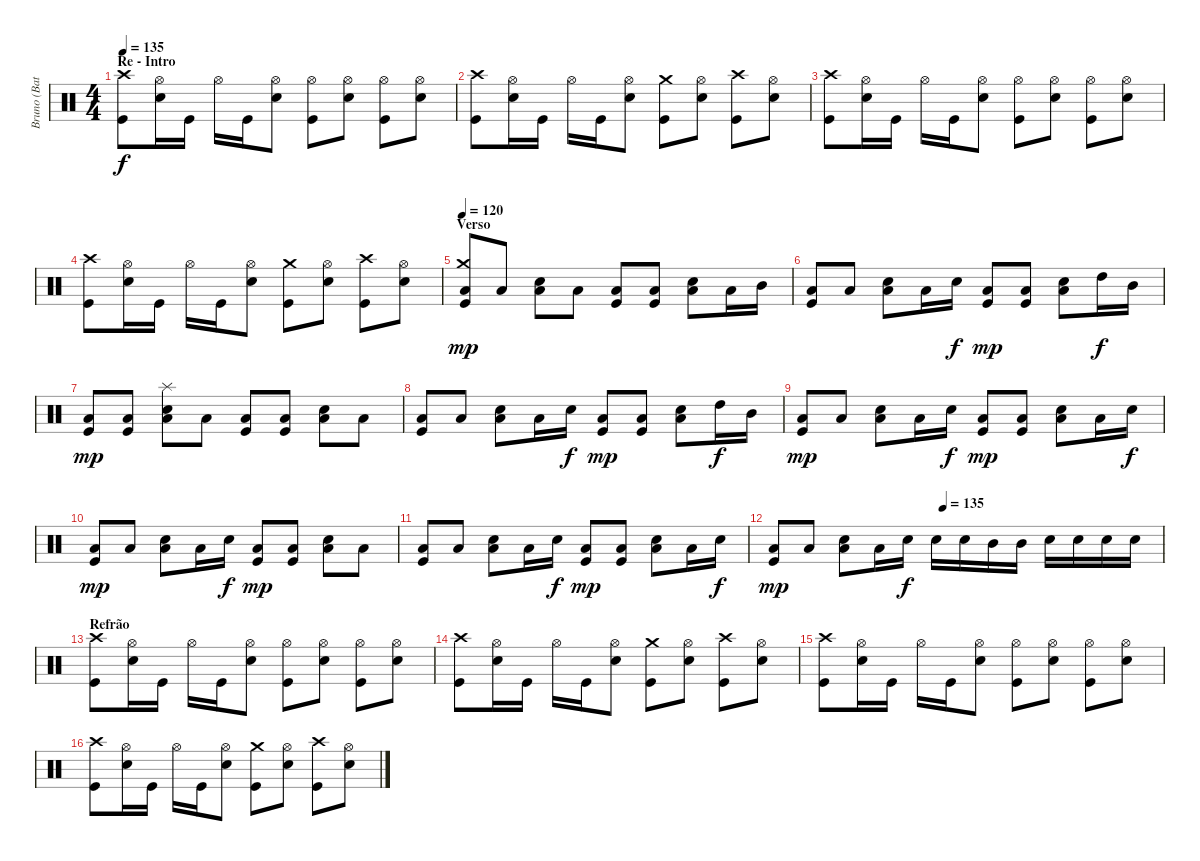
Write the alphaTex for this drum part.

\track ("Bruno (Bateria)" "Bruno (Bat") {instrument percussion}
\staff {score}
\articulation defaults
\ts (4 4)
\section ("" "Re - Intro")
\tempo 135
\clef neutral
\ks c
("Crash high (hit)" "Kick (hit)").8{dy f} ("Hi-Hat (open)" "Electric Snare (hit)").16 "Kick (hit)".16 "Hi-Hat (open)".16 "Kick (hit)".16 ("Hi-Hat (open)" "Electric Snare (hit)").8 ("Hi-Hat (open)" "Kick (hit)").8 ("Hi-Hat (open)" "Electric Snare (hit)").8 ("Hi-Hat (open)" "Kick (hit)").8 ("Hi-Hat (open)" "Electric Snare (hit)").8 |
("Crash high (hit)" "Kick (hit)").8 ("Hi-Hat (open)" "Electric Snare (hit)").16 "Kick (hit)".16 "Hi-Hat (open)".16 "Kick (hit)".16 ("Hi-Hat (open)" "Electric Snare (hit)").8 ("Crash medium (hit)" "Kick (hit)").8 ("Hi-Hat (open)" "Electric Snare (hit)").8 ("Crash high (hit)" "Kick (hit)").8 ("Hi-Hat (open)" "Electric Snare (hit)").8 |
("Crash high (hit)" "Kick (hit)").8 ("Hi-Hat (open)" "Electric Snare (hit)").16 "Kick (hit)".16 "Hi-Hat (open)".16 "Kick (hit)".16 ("Hi-Hat (open)" "Electric Snare (hit)").8 ("Hi-Hat (open)" "Kick (hit)").8 ("Hi-Hat (open)" "Electric Snare (hit)").8 ("Hi-Hat (open)" "Kick (hit)").8 ("Hi-Hat (open)" "Electric Snare (hit)").8 |
("Crash high (hit)" "Kick (hit)").8 ("Hi-Hat (open)" "Electric Snare (hit)").16 "Kick (hit)".16 "Hi-Hat (open)".16 "Kick (hit)".16 ("Hi-Hat (open)" "Electric Snare (hit)").8 ("Crash medium (hit)" "Kick (hit)").8 ("Hi-Hat (open)" "Electric Snare (hit)").8 ("Crash high (hit)" "Kick (hit)").8 ("Hi-Hat (open)" "Electric Snare (hit)").8 |
\section ("" "Verso")
\tempo 120
("Crash medium (hit)" "Low Tom (hit)" "Kick (hit)").8{dy mp} "Low Tom (hit)".8 ("Electric Snare (hit)" "Low Tom (hit)").8 "Low Tom (hit)".8 ("Low Tom (hit)" "Kick (hit)").8 ("Low Tom (hit)" "Kick (hit)").8 ("Electric Snare (hit)" "Low Tom (hit)").8 "Low Tom (hit)".16 "Mid Tom (hit)".16 |
("Low Tom (hit)" "Kick (hit)").8 "Low Tom (hit)".8 ("Electric Snare (hit)" "Low Tom (hit)").8 "Low Tom (hit)".16 "Electric Snare (hit)".16{dy f} ("Low Tom (hit)" "Kick (hit)").8{dy mp} ("Low Tom (hit)" "Kick (hit)").8 ("Electric Snare (hit)" "Low Tom (hit)").8 "High Tom (hit)".16{dy f} "Mid Tom (hit)".16 |
("Low Tom (hit)" "Kick (hit)").8{dy mp} ("Low Tom (hit)" "Kick (hit)").8 ("Splash (hit)" "Electric Snare (hit)" "Low Tom (hit)").8 "Low Tom (hit)".8 ("Low Tom (hit)" "Kick (hit)").8 ("Low Tom (hit)" "Kick (hit)").8 ("Electric Snare (hit)" "Low Tom (hit)").8 "Low Tom (hit)".8 |
("Low Tom (hit)" "Kick (hit)").8 "Low Tom (hit)".8 ("Electric Snare (hit)" "Low Tom (hit)").8 "Low Tom (hit)".16 "Electric Snare (hit)".16{dy f} ("Low Tom (hit)" "Kick (hit)").8{dy mp} ("Low Tom (hit)" "Kick (hit)").8 ("Electric Snare (hit)" "Low Tom (hit)").8 "High Tom (hit)".16{dy f} "Mid Tom (hit)".16 |
("Low Tom (hit)" "Kick (hit)").8{dy mp} "Low Tom (hit)".8 ("Electric Snare (hit)" "Low Tom (hit)").8 "Low Tom (hit)".16 "Electric Snare (hit)".16{dy f} ("Low Tom (hit)" "Kick (hit)").8{dy mp} ("Low Tom (hit)" "Kick (hit)").8 ("Electric Snare (hit)" "Low Tom (hit)").8 "Low Tom (hit)".16 "Electric Snare (hit)".16{dy f} |
("Low Tom (hit)" "Kick (hit)").8{dy mp} "Low Tom (hit)".8 ("Electric Snare (hit)" "Low Tom (hit)").8 "Low Tom (hit)".16 "Electric Snare (hit)".16{dy f} ("Low Tom (hit)" "Kick (hit)").8{dy mp} ("Low Tom (hit)" "Kick (hit)").8 ("Electric Snare (hit)" "Low Tom (hit)").8 "Low Tom (hit)".8 |
("Low Tom (hit)" "Kick (hit)").8 "Low Tom (hit)".8 ("Electric Snare (hit)" "Low Tom (hit)").8 "Low Tom (hit)".16 "Electric Snare (hit)".16{dy f} ("Low Tom (hit)" "Kick (hit)").8{dy mp} ("Low Tom (hit)" "Kick (hit)").8 ("Electric Snare (hit)" "Low Tom (hit)").8 "Low Tom (hit)".16 "Electric Snare (hit)".16{dy f} |
\tempo (135 0.4375)
("Low Tom (hit)" "Kick (hit)").8{dy mp} "Low Tom (hit)".8 ("Electric Snare (hit)" "Low Tom (hit)").8 "Low Tom (hit)".16 "Electric Snare (hit)".16{dy f} "Electric Snare (hit)".16 "Electric Snare (hit)".16 "Mid Tom (hit)".16 "Mid Tom (hit)".16 "Electric Snare (hit)".16 "Electric Snare (hit)".16 "Electric Snare (hit)".16 "Electric Snare (hit)".16 |
\section ("" "Refrão")
("Crash high (hit)" "Kick (hit)").8 ("Hi-Hat (open)" "Electric Snare (hit)").16 "Kick (hit)".16 "Hi-Hat (open)".16 "Kick (hit)".16 ("Hi-Hat (open)" "Electric Snare (hit)").8 ("Hi-Hat (open)" "Kick (hit)").8 ("Hi-Hat (open)" "Electric Snare (hit)").8 ("Hi-Hat (open)" "Kick (hit)").8 ("Hi-Hat (open)" "Electric Snare (hit)").8 |
("Crash high (hit)" "Kick (hit)").8 ("Hi-Hat (open)" "Electric Snare (hit)").16 "Kick (hit)".16 "Hi-Hat (open)".16 "Kick (hit)".16 ("Hi-Hat (open)" "Electric Snare (hit)").8 ("Crash medium (hit)" "Kick (hit)").8 ("Hi-Hat (open)" "Electric Snare (hit)").8 ("Crash high (hit)" "Kick (hit)").8 ("Hi-Hat (open)" "Electric Snare (hit)").8 |
("Crash high (hit)" "Kick (hit)").8 ("Hi-Hat (open)" "Electric Snare (hit)").16 "Kick (hit)".16 "Hi-Hat (open)".16 "Kick (hit)".16 ("Hi-Hat (open)" "Electric Snare (hit)").8 ("Hi-Hat (open)" "Kick (hit)").8 ("Hi-Hat (open)" "Electric Snare (hit)").8 ("Hi-Hat (open)" "Kick (hit)").8 ("Hi-Hat (open)" "Electric Snare (hit)").8 |
("Crash high (hit)" "Kick (hit)").8 ("Hi-Hat (open)" "Electric Snare (hit)").16 "Kick (hit)".16 "Hi-Hat (open)".16 "Kick (hit)".16 ("Hi-Hat (open)" "Electric Snare (hit)").8 ("Crash medium (hit)" "Kick (hit)").8 ("Hi-Hat (open)" "Electric Snare (hit)").8 ("Crash high (hit)" "Kick (hit)").8 ("Hi-Hat (open)" "Electric Snare (hit)").8
